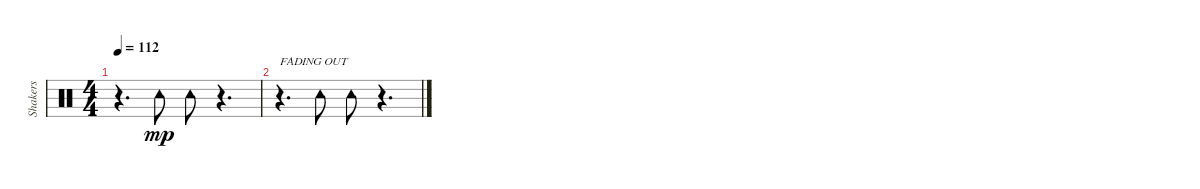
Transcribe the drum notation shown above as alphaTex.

\track ("Shakers" "Shakers") {instrument percussion}
\staff {score}
\articulation defaults
\ts (4 4)
\tempo 112
\clef neutral
\ks c
r.4{d dy mp} "Tambourine (hit)".8 "Tambourine (hit)".8 r.4{d} |
r.4{d txt "FADING OUT"} "Tambourine (hit)".8 "Tambourine (hit)".8 r.4{d}
